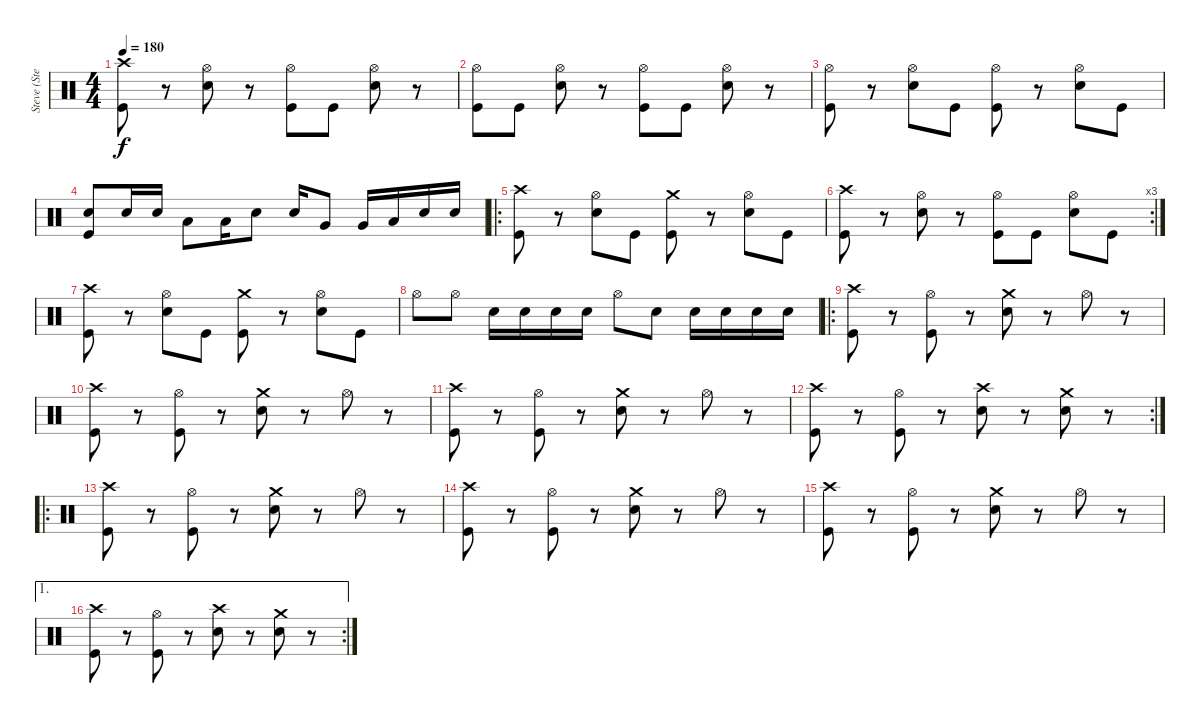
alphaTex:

\track ("Steve (Stevo32) - Drums" "Steve (Ste") {instrument percussion}
\staff {score}
\articulation defaults
\ts (4 4)
\tempo 180
\clef neutral
\ks c
("Crash high (hit)" "Kick (hit)").8{dy f} r.8 ("Hi-Hat (open)" "Electric Snare (hit)").8 r.8 ("Hi-Hat (open)" "Kick (hit)").8 "Kick (hit)".8 ("Hi-Hat (open)" "Electric Snare (hit)").8 r.8 |
("Hi-Hat (open)" "Kick (hit)").8 "Kick (hit)".8 ("Hi-Hat (open)" "Electric Snare (hit)").8 r.8 ("Hi-Hat (open)" "Kick (hit)").8 "Kick (hit)".8 ("Hi-Hat (open)" "Electric Snare (hit)").8 r.8 |
("Hi-Hat (open)" "Kick (hit)").8 r.8 ("Hi-Hat (open)" "Electric Snare (hit)").8 "Kick (hit)".8 ("Hi-Hat (open)" "Kick (hit)").8 r.8 ("Hi-Hat (open)" "Electric Snare (hit)").8 "Kick (hit)".8 |
("Electric Snare (hit)" "Kick (hit)").8 "Electric Snare (hit)".16 "Electric Snare (hit)".16 "Low Floor Tom (hit)".8 "Low Floor Tom (hit)".16 "Electric Snare (hit)".8 "Electric Snare (hit)".16 "Very Low Tom (hit)".8 "Very Low Tom (hit)".16 "Low Floor Tom (hit)".16 "Electric Snare (hit)".16 "Electric Snare (hit)".16 |
\ro
("Crash high (hit)" "Kick (hit)").8 r.8 ("Hi-Hat (open)" "Electric Snare (hit)").8 "Kick (hit)".8 ("Crash medium (hit)" "Kick (hit)").8 r.8 ("Hi-Hat (open)" "Electric Snare (hit)").8 "Kick (hit)".8 |
\rc 3
("Crash high (hit)" "Kick (hit)").8 r.8 ("Hi-Hat (open)" "Electric Snare (hit)").8 r.8 ("Hi-Hat (open)" "Kick (hit)").8 "Kick (hit)".8 ("Hi-Hat (open)" "Electric Snare (hit)").8 "Kick (hit)".8 |
("Crash high (hit)" "Kick (hit)").8 r.8 ("Hi-Hat (open)" "Electric Snare (hit)").8 "Kick (hit)".8 ("Crash medium (hit)" "Kick (hit)").8 r.8 ("Hi-Hat (open)" "Electric Snare (hit)").8 "Kick (hit)".8 |
"Hi-Hat (open)".8 "Hi-Hat (open)".8 "Electric Snare (hit)".16 "Electric Snare (hit)".16 "Electric Snare (hit)".16 "Electric Snare (hit)".16 "Hi-Hat (open)".8 "Electric Snare (hit)".8 "Electric Snare (hit)".16 "Electric Snare (hit)".16 "Electric Snare (hit)".16 "Electric Snare (hit)".16 |
\ro
("Crash high (hit)" "Kick (hit)").8 r.8 ("Hi-Hat (open)" "Kick (hit)").8 r.8 ("Crash medium (hit)" "Electric Snare (hit)").8 r.8 "Hi-Hat (open)".8 r.8 |
("Crash high (hit)" "Kick (hit)").8 r.8 ("Hi-Hat (open)" "Kick (hit)").8 r.8 ("Crash medium (hit)" "Electric Snare (hit)").8 r.8 "Hi-Hat (open)".8 r.8 |
("Crash high (hit)" "Kick (hit)").8 r.8 ("Hi-Hat (open)" "Kick (hit)").8 r.8 ("Crash medium (hit)" "Electric Snare (hit)").8 r.8 "Hi-Hat (open)".8 r.8 |
\rc 2
("Crash high (hit)" "Kick (hit)").8 r.8 ("Hi-Hat (open)" "Kick (hit)").8 r.8 ("Crash high (hit)" "Electric Snare (hit)").8 r.8 ("Crash medium (hit)" "Electric Snare (hit)").8 r.8 |
\ro
("Crash high (hit)" "Kick (hit)").8 r.8 ("Hi-Hat (open)" "Kick (hit)").8 r.8 ("Crash medium (hit)" "Electric Snare (hit)").8 r.8 "Hi-Hat (open)".8 r.8 |
("Crash high (hit)" "Kick (hit)").8 r.8 ("Hi-Hat (open)" "Kick (hit)").8 r.8 ("Crash medium (hit)" "Electric Snare (hit)").8 r.8 "Hi-Hat (open)".8 r.8 |
("Crash high (hit)" "Kick (hit)").8 r.8 ("Hi-Hat (open)" "Kick (hit)").8 r.8 ("Crash medium (hit)" "Electric Snare (hit)").8 r.8 "Hi-Hat (open)".8 r.8 |
\ae 1
\rc 2
("Crash high (hit)" "Kick (hit)").8 r.8 ("Hi-Hat (open)" "Kick (hit)").8 r.8 ("Crash high (hit)" "Electric Snare (hit)").8 r.8 ("Crash medium (hit)" "Electric Snare (hit)").8 r.8
